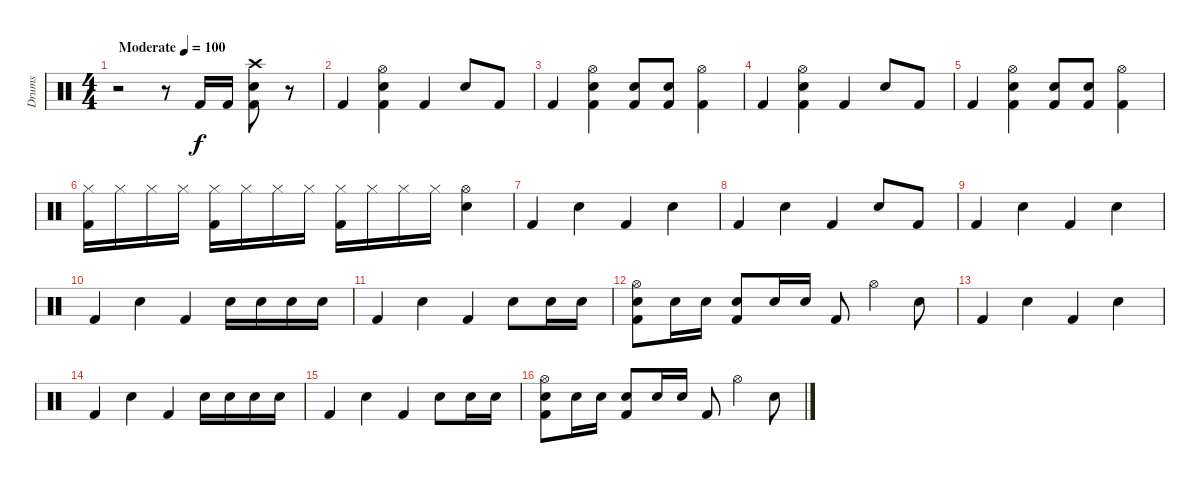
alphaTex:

\track ("Drums" "Drums") {instrument percussion}
\staff {score}
\articulation defaults
\ts (4 4)
\tempo (100 "Moderate")
\clef neutral
\ks c
r.2{dy f} r.8 "Kick (hit) 2".16 "Kick (hit) 2".16 ("Kick (hit) 2" "Snare (hit) 2" "Crash high (hit)").8 r.8 |
"Kick (hit) 2".4 ("Kick (hit) 2" "Snare (hit) 2" "Hi-Hat (open)").4 "Kick (hit) 2".4 "Snare (hit) 2".8 "Kick (hit) 2".8 |
"Kick (hit) 2".4 ("Kick (hit) 2" "Snare (hit) 2" "Hi-Hat (open)").4 ("Kick (hit) 2" "Snare (hit) 2").8 ("Kick (hit) 2" "Snare (hit) 2").8 ("Kick (hit) 2" "Hi-Hat (open)").4 |
"Kick (hit) 2".4 ("Kick (hit) 2" "Snare (hit) 2" "Hi-Hat (open)").4 "Kick (hit) 2".4 "Snare (hit) 2".8 "Kick (hit) 2".8 |
"Kick (hit) 2".4 ("Kick (hit) 2" "Snare (hit) 2" "Hi-Hat (open)").4 ("Kick (hit) 2" "Snare (hit) 2").8 ("Kick (hit) 2" "Snare (hit) 2").8 ("Kick (hit) 2" "Hi-Hat (open)").4 |
("Kick (hit) 2" "Hi-Hat (closed)").16 "Hi-Hat (closed)".16 "Hi-Hat (closed)".16 "Hi-Hat (closed)".16 ("Kick (hit) 2" "Hi-Hat (closed)").16 "Hi-Hat (closed)".16 "Hi-Hat (closed)".16 "Hi-Hat (closed)".16 ("Kick (hit) 2" "Hi-Hat (closed)").16 "Hi-Hat (closed)".16 "Hi-Hat (closed)".16 "Hi-Hat (closed)".16 ("Snare (hit) 2" "Hi-Hat (open)").4 |
"Kick (hit) 2".4 "Snare (hit) 2".4 "Kick (hit) 2".4 "Snare (hit) 2".4 |
"Kick (hit) 2".4 "Snare (hit) 2".4 "Kick (hit) 2".4 "Snare (hit) 2".8 "Kick (hit) 2".8 |
"Kick (hit) 2".4 "Snare (hit) 2".4 "Kick (hit) 2".4 "Snare (hit) 2".4 |
"Kick (hit) 2".4 "Snare (hit) 2".4 "Kick (hit) 2".4 "Snare (hit) 2".16 "Snare (hit) 2".16 "Snare (hit) 2".16 "Snare (hit) 2".16 |
"Kick (hit) 2".4 "Snare (hit) 2".4 "Kick (hit) 2".4 "Snare (hit) 2".8 "Snare (hit) 2".16 "Snare (hit) 2".16 |
("Kick (hit) 2" "Snare (hit) 2" "Hi-Hat (open)").8 "Snare (hit) 2".16 "Snare (hit) 2".16 ("Kick (hit) 2" "Electric Snare (hit)").8 "Snare (hit) 2".16 "Snare (hit) 2".16 "Kick (hit) 2".8 "Hi-Hat (open)".4 "Snare (hit) 2".8 |
"Kick (hit) 2".4 "Snare (hit) 2".4 "Kick (hit) 2".4 "Snare (hit) 2".4 |
"Kick (hit) 2".4 "Snare (hit) 2".4 "Kick (hit) 2".4 "Snare (hit) 2".16 "Snare (hit) 2".16 "Snare (hit) 2".16 "Snare (hit) 2".16 |
"Kick (hit) 2".4 "Snare (hit) 2".4 "Kick (hit) 2".4 "Snare (hit) 2".8 "Snare (hit) 2".16 "Snare (hit) 2".16 |
("Kick (hit) 2" "Snare (hit) 2" "Hi-Hat (open)").8 "Snare (hit) 2".16 "Snare (hit) 2".16 ("Kick (hit) 2" "Electric Snare (hit)").8 "Snare (hit) 2".16 "Snare (hit) 2".16 "Kick (hit) 2".8 "Hi-Hat (open)".4 "Snare (hit) 2".8
